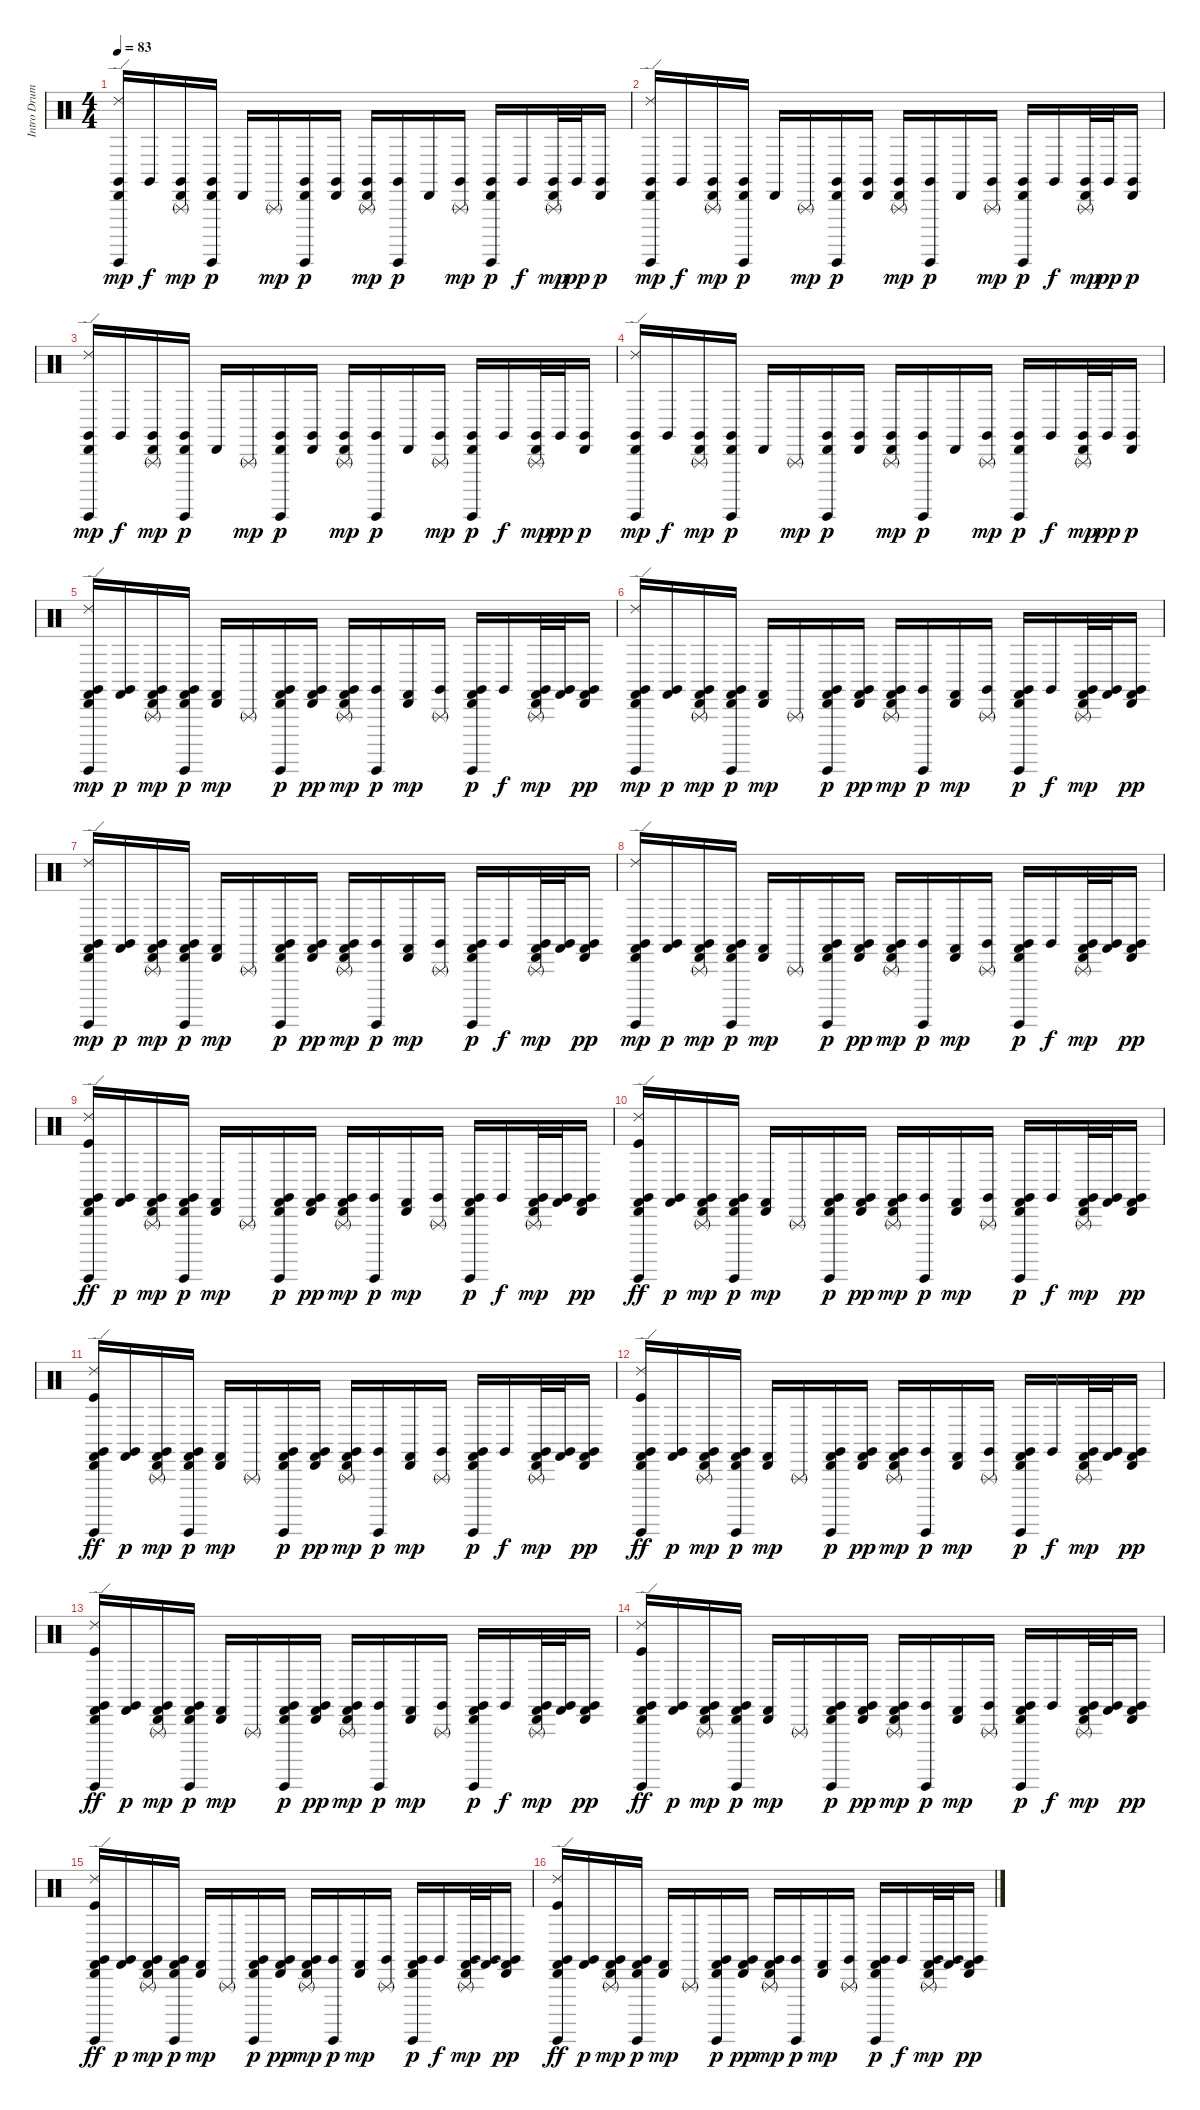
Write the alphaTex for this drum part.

\track ("Intro Drums" "Intro Drum") {instrument percussion}
\staff {score}
\articulation defaults
\ts (4 4)
\tempo 83
\clef neutral
\ks c
("Claves (hit)" "Cabasa (hit)" "Guiro (hit)" "Ride (edge) 2").16{dy mp} "Claves (hit)".16{dy f} ("Claves (hit)" "Cabasa (hit)" "Triangle (rnute)").16{dy mp} ("Claves (hit)" "Cabasa (hit)" "Guiro (hit)").16{dy p} "Cabasa (hit)".16 "Triangle (rnute)".16{dy mp} ("Claves (hit)" "Cabasa (hit)" "Guiro (hit)").16{dy p} ("Claves (hit)" "Cabasa (hit)").16 ("Claves (hit)" "Cabasa (hit)" "Triangle (rnute)").16{dy mp} ("Claves (hit)" "Guiro (hit)").16{dy p} "Cabasa (hit)".16 ("Claves (hit)" "Triangle (rnute)").16{dy mp} ("Claves (hit)" "Cabasa (hit)" "Guiro (hit)").16{dy p} "Claves (hit)".16{dy f} ("Claves (hit)" "Cabasa (hit)" "Triangle (rnute)").32{dy mp} "Claves (hit)".32{dy pp} ("Claves (hit)" "Cabasa (hit)").16{dy p} |
("Claves (hit)" "Cabasa (hit)" "Guiro (hit)" "Ride (edge) 2").16{dy mp} "Claves (hit)".16{dy f} ("Claves (hit)" "Cabasa (hit)" "Triangle (rnute)").16{dy mp} ("Claves (hit)" "Cabasa (hit)" "Guiro (hit)").16{dy p} "Cabasa (hit)".16 "Triangle (rnute)".16{dy mp} ("Claves (hit)" "Cabasa (hit)" "Guiro (hit)").16{dy p} ("Claves (hit)" "Cabasa (hit)").16 ("Claves (hit)" "Cabasa (hit)" "Triangle (rnute)").16{dy mp} ("Claves (hit)" "Guiro (hit)").16{dy p} "Cabasa (hit)".16 ("Claves (hit)" "Triangle (rnute)").16{dy mp} ("Claves (hit)" "Cabasa (hit)" "Guiro (hit)").16{dy p} "Claves (hit)".16{dy f} ("Claves (hit)" "Cabasa (hit)" "Triangle (rnute)").32{dy mp} "Claves (hit)".32{dy pp} ("Claves (hit)" "Cabasa (hit)").16{dy p} |
("Claves (hit)" "Cabasa (hit)" "Guiro (hit)" "Ride (edge) 2").16{dy mp} "Claves (hit)".16{dy f} ("Claves (hit)" "Cabasa (hit)" "Triangle (rnute)").16{dy mp} ("Claves (hit)" "Cabasa (hit)" "Guiro (hit)").16{dy p} "Cabasa (hit)".16 "Triangle (rnute)".16{dy mp} ("Claves (hit)" "Cabasa (hit)" "Guiro (hit)").16{dy p} ("Claves (hit)" "Cabasa (hit)").16 ("Claves (hit)" "Cabasa (hit)" "Triangle (rnute)").16{dy mp} ("Claves (hit)" "Guiro (hit)").16{dy p} "Cabasa (hit)".16 ("Claves (hit)" "Triangle (rnute)").16{dy mp} ("Claves (hit)" "Cabasa (hit)" "Guiro (hit)").16{dy p} "Claves (hit)".16{dy f} ("Claves (hit)" "Cabasa (hit)" "Triangle (rnute)").32{dy mp} "Claves (hit)".32{dy pp} ("Claves (hit)" "Cabasa (hit)").16{dy p} |
("Claves (hit)" "Cabasa (hit)" "Guiro (hit)" "Ride (edge) 2").16{dy mp} "Claves (hit)".16{dy f} ("Claves (hit)" "Cabasa (hit)" "Triangle (rnute)").16{dy mp} ("Claves (hit)" "Cabasa (hit)" "Guiro (hit)").16{dy p} "Cabasa (hit)".16 "Triangle (rnute)".16{dy mp} ("Claves (hit)" "Cabasa (hit)" "Guiro (hit)").16{dy p} ("Claves (hit)" "Cabasa (hit)").16 ("Claves (hit)" "Cabasa (hit)" "Triangle (rnute)").16{dy mp} ("Claves (hit)" "Guiro (hit)").16{dy p} "Cabasa (hit)".16 ("Claves (hit)" "Triangle (rnute)").16{dy mp} ("Claves (hit)" "Cabasa (hit)" "Guiro (hit)").16{dy p} "Claves (hit)".16{dy f} ("Claves (hit)" "Cabasa (hit)" "Triangle (rnute)").32{dy mp} "Claves (hit)".32{dy pp} ("Claves (hit)" "Cabasa (hit)").16{dy p} |
("Claves (hit)" "Cabasa (hit)" "Guiro (hit)" "Castanets (hit)" "Ride (edge) 2").16{dy mp} ("Claves (hit)" "Castanets (hit)").16{dy p} ("Claves (hit)" "Cabasa (hit)" "Castanets (hit)" "Triangle (rnute)").16{dy mp} ("Claves (hit)" "Cabasa (hit)" "Guiro (hit)" "Castanets (hit)").16{dy p} ("Cabasa (hit)" "Castanets (hit)").16{dy mp} "Triangle (rnute)".16 ("Claves (hit)" "Cabasa (hit)" "Guiro (hit)" "Castanets (hit)").16{dy p} ("Claves (hit)" "Cabasa (hit)" "Castanets (hit)").16{dy pp} ("Claves (hit)" "Cabasa (hit)" "Castanets (hit)" "Triangle (rnute)").16{dy mp} ("Claves (hit)" "Guiro (hit)").16{dy p} ("Cabasa (hit)" "Castanets (hit)").16{dy mp} ("Claves (hit)" "Triangle (rnute)").16 ("Claves (hit)" "Cabasa (hit)" "Guiro (hit)" "Castanets (hit)").16{dy p} "Claves (hit)".16{dy f} ("Claves (hit)" "Cabasa (hit)" "Castanets (hit)" "Triangle (rnute)").32{dy mp} ("Claves (hit)" "Castanets (hit)").32 ("Claves (hit)" "Cabasa (hit)" "Castanets (hit)").16{dy pp} |
("Claves (hit)" "Cabasa (hit)" "Guiro (hit)" "Castanets (hit)" "Ride (edge) 2").16{dy mp} ("Claves (hit)" "Castanets (hit)").16{dy p} ("Claves (hit)" "Cabasa (hit)" "Castanets (hit)" "Triangle (rnute)").16{dy mp} ("Claves (hit)" "Cabasa (hit)" "Guiro (hit)" "Castanets (hit)").16{dy p} ("Cabasa (hit)" "Castanets (hit)").16{dy mp} "Triangle (rnute)".16 ("Claves (hit)" "Cabasa (hit)" "Guiro (hit)" "Castanets (hit)").16{dy p} ("Claves (hit)" "Cabasa (hit)" "Castanets (hit)").16{dy pp} ("Claves (hit)" "Cabasa (hit)" "Castanets (hit)" "Triangle (rnute)").16{dy mp} ("Claves (hit)" "Guiro (hit)").16{dy p} ("Cabasa (hit)" "Castanets (hit)").16{dy mp} ("Claves (hit)" "Triangle (rnute)").16 ("Claves (hit)" "Cabasa (hit)" "Guiro (hit)" "Castanets (hit)").16{dy p} "Claves (hit)".16{dy f} ("Claves (hit)" "Cabasa (hit)" "Castanets (hit)" "Triangle (rnute)").32{dy mp} ("Claves (hit)" "Castanets (hit)").32 ("Claves (hit)" "Cabasa (hit)" "Castanets (hit)").16{dy pp} |
("Claves (hit)" "Cabasa (hit)" "Guiro (hit)" "Castanets (hit)" "Ride (edge) 2").16{dy mp} ("Claves (hit)" "Castanets (hit)").16{dy p} ("Claves (hit)" "Cabasa (hit)" "Castanets (hit)" "Triangle (rnute)").16{dy mp} ("Claves (hit)" "Cabasa (hit)" "Guiro (hit)" "Castanets (hit)").16{dy p} ("Cabasa (hit)" "Castanets (hit)").16{dy mp} "Triangle (rnute)".16 ("Claves (hit)" "Cabasa (hit)" "Guiro (hit)" "Castanets (hit)").16{dy p} ("Claves (hit)" "Cabasa (hit)" "Castanets (hit)").16{dy pp} ("Claves (hit)" "Cabasa (hit)" "Castanets (hit)" "Triangle (rnute)").16{dy mp} ("Claves (hit)" "Guiro (hit)").16{dy p} ("Cabasa (hit)" "Castanets (hit)").16{dy mp} ("Claves (hit)" "Triangle (rnute)").16 ("Claves (hit)" "Cabasa (hit)" "Guiro (hit)" "Castanets (hit)").16{dy p} "Claves (hit)".16{dy f} ("Claves (hit)" "Cabasa (hit)" "Castanets (hit)" "Triangle (rnute)").32{dy mp} ("Claves (hit)" "Castanets (hit)").32 ("Claves (hit)" "Cabasa (hit)" "Castanets (hit)").16{dy pp} |
("Claves (hit)" "Cabasa (hit)" "Guiro (hit)" "Castanets (hit)" "Ride (edge) 2").16{dy mp} ("Claves (hit)" "Castanets (hit)").16{dy p} ("Claves (hit)" "Cabasa (hit)" "Castanets (hit)" "Triangle (rnute)").16{dy mp} ("Claves (hit)" "Cabasa (hit)" "Guiro (hit)" "Castanets (hit)").16{dy p} ("Cabasa (hit)" "Castanets (hit)").16{dy mp} "Triangle (rnute)".16 ("Claves (hit)" "Cabasa (hit)" "Guiro (hit)" "Castanets (hit)").16{dy p} ("Claves (hit)" "Cabasa (hit)" "Castanets (hit)").16{dy pp} ("Claves (hit)" "Cabasa (hit)" "Castanets (hit)" "Triangle (rnute)").16{dy mp} ("Claves (hit)" "Guiro (hit)").16{dy p} ("Cabasa (hit)" "Castanets (hit)").16{dy mp} ("Claves (hit)" "Triangle (rnute)").16 ("Claves (hit)" "Cabasa (hit)" "Guiro (hit)" "Castanets (hit)").16{dy p} "Claves (hit)".16{dy f} ("Claves (hit)" "Cabasa (hit)" "Castanets (hit)" "Triangle (rnute)").32{dy mp} ("Claves (hit)" "Castanets (hit)").32 ("Claves (hit)" "Cabasa (hit)" "Castanets (hit)").16{dy pp} |
("Claves (hit)" "Cabasa (hit)" "Guiro (hit)" "Castanets (hit)" "Ride (edge) 2" "Kick (hit)").16{dy ff} ("Claves (hit)" "Castanets (hit)").16{dy p} ("Claves (hit)" "Cabasa (hit)" "Castanets (hit)" "Triangle (rnute)").16{dy mp} ("Claves (hit)" "Cabasa (hit)" "Guiro (hit)" "Castanets (hit)").16{dy p} ("Cabasa (hit)" "Castanets (hit)").16{dy mp} "Triangle (rnute)".16 ("Claves (hit)" "Cabasa (hit)" "Guiro (hit)" "Castanets (hit)").16{dy p} ("Claves (hit)" "Cabasa (hit)" "Castanets (hit)").16{dy pp} ("Claves (hit)" "Cabasa (hit)" "Castanets (hit)" "Triangle (rnute)").16{dy mp} ("Claves (hit)" "Guiro (hit)").16{dy p} ("Cabasa (hit)" "Castanets (hit)").16{dy mp} ("Claves (hit)" "Triangle (rnute)").16 ("Claves (hit)" "Cabasa (hit)" "Guiro (hit)" "Castanets (hit)").16{dy p} "Claves (hit)".16{dy f} ("Claves (hit)" "Cabasa (hit)" "Castanets (hit)" "Triangle (rnute)").32{dy mp} ("Claves (hit)" "Castanets (hit)").32 ("Claves (hit)" "Cabasa (hit)" "Castanets (hit)").16{dy pp} |
("Claves (hit)" "Cabasa (hit)" "Guiro (hit)" "Castanets (hit)" "Ride (edge) 2" "Kick (hit)").16{dy ff} ("Claves (hit)" "Castanets (hit)").16{dy p} ("Claves (hit)" "Cabasa (hit)" "Castanets (hit)" "Triangle (rnute)").16{dy mp} ("Claves (hit)" "Cabasa (hit)" "Guiro (hit)" "Castanets (hit)").16{dy p} ("Cabasa (hit)" "Castanets (hit)").16{dy mp} "Triangle (rnute)".16 ("Claves (hit)" "Cabasa (hit)" "Guiro (hit)" "Castanets (hit)").16{dy p} ("Claves (hit)" "Cabasa (hit)" "Castanets (hit)").16{dy pp} ("Claves (hit)" "Cabasa (hit)" "Castanets (hit)" "Triangle (rnute)").16{dy mp} ("Claves (hit)" "Guiro (hit)").16{dy p} ("Cabasa (hit)" "Castanets (hit)").16{dy mp} ("Claves (hit)" "Triangle (rnute)").16 ("Claves (hit)" "Cabasa (hit)" "Guiro (hit)" "Castanets (hit)").16{dy p} "Claves (hit)".16{dy f} ("Claves (hit)" "Cabasa (hit)" "Castanets (hit)" "Triangle (rnute)").32{dy mp} ("Claves (hit)" "Castanets (hit)").32 ("Claves (hit)" "Cabasa (hit)" "Castanets (hit)").16{dy pp} |
("Claves (hit)" "Cabasa (hit)" "Guiro (hit)" "Castanets (hit)" "Ride (edge) 2" "Kick (hit)").16{dy ff} ("Claves (hit)" "Castanets (hit)").16{dy p} ("Claves (hit)" "Cabasa (hit)" "Castanets (hit)" "Triangle (rnute)").16{dy mp} ("Claves (hit)" "Cabasa (hit)" "Guiro (hit)" "Castanets (hit)").16{dy p} ("Cabasa (hit)" "Castanets (hit)").16{dy mp} "Triangle (rnute)".16 ("Claves (hit)" "Cabasa (hit)" "Guiro (hit)" "Castanets (hit)").16{dy p} ("Claves (hit)" "Cabasa (hit)" "Castanets (hit)").16{dy pp} ("Claves (hit)" "Cabasa (hit)" "Castanets (hit)" "Triangle (rnute)").16{dy mp} ("Claves (hit)" "Guiro (hit)").16{dy p} ("Cabasa (hit)" "Castanets (hit)").16{dy mp} ("Claves (hit)" "Triangle (rnute)").16 ("Claves (hit)" "Cabasa (hit)" "Guiro (hit)" "Castanets (hit)").16{dy p} "Claves (hit)".16{dy f} ("Claves (hit)" "Cabasa (hit)" "Castanets (hit)" "Triangle (rnute)").32{dy mp} ("Claves (hit)" "Castanets (hit)").32 ("Claves (hit)" "Cabasa (hit)" "Castanets (hit)").16{dy pp} |
("Claves (hit)" "Cabasa (hit)" "Guiro (hit)" "Castanets (hit)" "Ride (edge) 2" "Kick (hit)").16{dy ff} ("Claves (hit)" "Castanets (hit)").16{dy p} ("Claves (hit)" "Cabasa (hit)" "Castanets (hit)" "Triangle (rnute)").16{dy mp} ("Claves (hit)" "Cabasa (hit)" "Guiro (hit)" "Castanets (hit)").16{dy p} ("Cabasa (hit)" "Castanets (hit)").16{dy mp} "Triangle (rnute)".16 ("Claves (hit)" "Cabasa (hit)" "Guiro (hit)" "Castanets (hit)").16{dy p} ("Claves (hit)" "Cabasa (hit)" "Castanets (hit)").16{dy pp} ("Claves (hit)" "Cabasa (hit)" "Castanets (hit)" "Triangle (rnute)").16{dy mp} ("Claves (hit)" "Guiro (hit)").16{dy p} ("Cabasa (hit)" "Castanets (hit)").16{dy mp} ("Claves (hit)" "Triangle (rnute)").16 ("Claves (hit)" "Cabasa (hit)" "Guiro (hit)" "Castanets (hit)").16{dy p} "Claves (hit)".16{dy f} ("Claves (hit)" "Cabasa (hit)" "Castanets (hit)" "Triangle (rnute)").32{dy mp} ("Claves (hit)" "Castanets (hit)").32 ("Claves (hit)" "Cabasa (hit)" "Castanets (hit)").16{dy pp} |
("Claves (hit)" "Cabasa (hit)" "Guiro (hit)" "Castanets (hit)" "Ride (edge) 2" "Kick (hit)").16{dy ff} ("Claves (hit)" "Castanets (hit)").16{dy p} ("Claves (hit)" "Cabasa (hit)" "Castanets (hit)" "Triangle (rnute)").16{dy mp} ("Claves (hit)" "Cabasa (hit)" "Guiro (hit)" "Castanets (hit)").16{dy p} ("Cabasa (hit)" "Castanets (hit)").16{dy mp} "Triangle (rnute)".16 ("Claves (hit)" "Cabasa (hit)" "Guiro (hit)" "Castanets (hit)").16{dy p} ("Claves (hit)" "Cabasa (hit)" "Castanets (hit)").16{dy pp} ("Claves (hit)" "Cabasa (hit)" "Castanets (hit)" "Triangle (rnute)").16{dy mp} ("Claves (hit)" "Guiro (hit)").16{dy p} ("Cabasa (hit)" "Castanets (hit)").16{dy mp} ("Claves (hit)" "Triangle (rnute)").16 ("Claves (hit)" "Cabasa (hit)" "Guiro (hit)" "Castanets (hit)").16{dy p} "Claves (hit)".16{dy f} ("Claves (hit)" "Cabasa (hit)" "Castanets (hit)" "Triangle (rnute)").32{dy mp} ("Claves (hit)" "Castanets (hit)").32 ("Claves (hit)" "Cabasa (hit)" "Castanets (hit)").16{dy pp} |
("Claves (hit)" "Cabasa (hit)" "Guiro (hit)" "Castanets (hit)" "Ride (edge) 2" "Kick (hit)").16{dy ff} ("Claves (hit)" "Castanets (hit)").16{dy p} ("Claves (hit)" "Cabasa (hit)" "Castanets (hit)" "Triangle (rnute)").16{dy mp} ("Claves (hit)" "Cabasa (hit)" "Guiro (hit)" "Castanets (hit)").16{dy p} ("Cabasa (hit)" "Castanets (hit)").16{dy mp} "Triangle (rnute)".16 ("Claves (hit)" "Cabasa (hit)" "Guiro (hit)" "Castanets (hit)").16{dy p} ("Claves (hit)" "Cabasa (hit)" "Castanets (hit)").16{dy pp} ("Claves (hit)" "Cabasa (hit)" "Castanets (hit)" "Triangle (rnute)").16{dy mp} ("Claves (hit)" "Guiro (hit)").16{dy p} ("Cabasa (hit)" "Castanets (hit)").16{dy mp} ("Claves (hit)" "Triangle (rnute)").16 ("Claves (hit)" "Cabasa (hit)" "Guiro (hit)" "Castanets (hit)").16{dy p} "Claves (hit)".16{dy f} ("Claves (hit)" "Cabasa (hit)" "Castanets (hit)" "Triangle (rnute)").32{dy mp} ("Claves (hit)" "Castanets (hit)").32 ("Claves (hit)" "Cabasa (hit)" "Castanets (hit)").16{dy pp} |
("Claves (hit)" "Cabasa (hit)" "Guiro (hit)" "Castanets (hit)" "Ride (edge) 2" "Kick (hit)").16{dy ff} ("Claves (hit)" "Castanets (hit)").16{dy p} ("Claves (hit)" "Cabasa (hit)" "Castanets (hit)" "Triangle (rnute)").16{dy mp} ("Claves (hit)" "Cabasa (hit)" "Guiro (hit)" "Castanets (hit)").16{dy p} ("Cabasa (hit)" "Castanets (hit)").16{dy mp} "Triangle (rnute)".16 ("Claves (hit)" "Cabasa (hit)" "Guiro (hit)" "Castanets (hit)").16{dy p} ("Claves (hit)" "Cabasa (hit)" "Castanets (hit)").16{dy pp} ("Claves (hit)" "Cabasa (hit)" "Castanets (hit)" "Triangle (rnute)").16{dy mp} ("Claves (hit)" "Guiro (hit)").16{dy p} ("Cabasa (hit)" "Castanets (hit)").16{dy mp} ("Claves (hit)" "Triangle (rnute)").16 ("Claves (hit)" "Cabasa (hit)" "Guiro (hit)" "Castanets (hit)").16{dy p} "Claves (hit)".16{dy f} ("Claves (hit)" "Cabasa (hit)" "Castanets (hit)" "Triangle (rnute)").32{dy mp} ("Claves (hit)" "Castanets (hit)").32 ("Claves (hit)" "Cabasa (hit)" "Castanets (hit)").16{dy pp} |
("Claves (hit)" "Cabasa (hit)" "Guiro (hit)" "Castanets (hit)" "Ride (edge) 2" "Kick (hit)").16{dy ff} ("Claves (hit)" "Castanets (hit)").16{dy p} ("Claves (hit)" "Cabasa (hit)" "Castanets (hit)" "Triangle (rnute)").16{dy mp} ("Claves (hit)" "Cabasa (hit)" "Guiro (hit)" "Castanets (hit)").16{dy p} ("Cabasa (hit)" "Castanets (hit)").16{dy mp} "Triangle (rnute)".16 ("Claves (hit)" "Cabasa (hit)" "Guiro (hit)" "Castanets (hit)").16{dy p} ("Claves (hit)" "Cabasa (hit)" "Castanets (hit)").16{dy pp} ("Claves (hit)" "Cabasa (hit)" "Castanets (hit)" "Triangle (rnute)").16{dy mp} ("Claves (hit)" "Guiro (hit)").16{dy p} ("Cabasa (hit)" "Castanets (hit)").16{dy mp} ("Claves (hit)" "Triangle (rnute)").16 ("Claves (hit)" "Cabasa (hit)" "Guiro (hit)" "Castanets (hit)").16{dy p} "Claves (hit)".16{dy f} ("Claves (hit)" "Cabasa (hit)" "Castanets (hit)" "Triangle (rnute)").32{dy mp} ("Claves (hit)" "Castanets (hit)").32 ("Claves (hit)" "Cabasa (hit)" "Castanets (hit)").16{dy pp}
